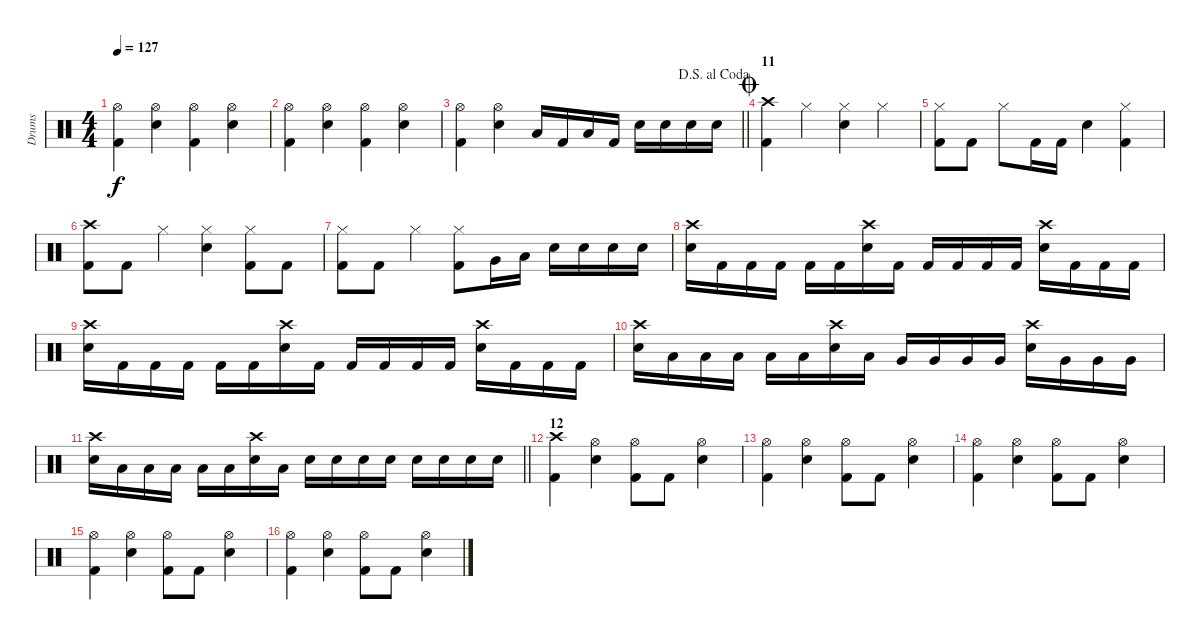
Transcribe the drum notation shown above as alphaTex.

\track ("Drums" "Drums") {instrument percussion}
\staff {score}
\articulation defaults
\ts (4 4)
\tempo 127
\clef neutral
\ks c
("Hi-Hat (open)" "Kick (hit) 2").4{dy f} ("Hi-Hat (open)" "Snare (hit) 2").4 ("Hi-Hat (open)" "Kick (hit) 2").4 ("Hi-Hat (open)" "Snare (hit) 2").4 |
("Hi-Hat (open)" "Kick (hit) 2").4 ("Hi-Hat (open)" "Snare (hit) 2").4 ("Hi-Hat (open)" "Kick (hit) 2").4 ("Hi-Hat (open)" "Snare (hit) 2").4 |
\jump dalsegnoalcoda
\barLineRight lightlight
("Hi-Hat (open)" "Kick (hit) 2").4 ("Hi-Hat (open)" "Snare (hit) 2").4 "Low Tom (hit)".16 "Kick (hit) 2".16 "Low Tom (hit)".16 "Kick (hit) 2".16 "Snare (hit) 2".16 "Snare (hit) 2".16 "Snare (hit) 2".16 "Snare (hit) 2".16 |
\section ("" "11")
\jump coda
("Crash high (hit)" "Kick (hit) 2").4 "Hi-Hat (closed)".4 ("Hi-Hat (closed)" "Snare (hit) 2").4 "Hi-Hat (closed)".4 |
("Hi-Hat (closed)" "Kick (hit) 2").8 "Kick (hit) 2".8 "Hi-Hat (closed)".8 "Kick (hit) 2".16 "Kick (hit) 2".16 "Snare (hit) 2".4 ("Hi-Hat (closed)" "Kick (hit) 2").4 |
("Crash high (hit)" "Kick (hit) 2").8 "Kick (hit) 2".8 "Hi-Hat (closed)".4 ("Hi-Hat (closed)" "Snare (hit) 2").4 ("Hi-Hat (closed)" "Kick (hit) 2").8 "Kick (hit) 2".8 |
("Hi-Hat (closed)" "Kick (hit) 2").8 "Kick (hit) 2".8 "Hi-Hat (closed)".4 ("Hi-Hat (closed)" "Kick (hit) 2").8 "Very Low Tom (hit)".16 "Low Floor Tom (hit)".16 "Snare (hit) 2".16 "Snare (hit) 2".16 "Snare (hit) 2".16 "Snare (hit) 2".16 |
("Crash high (hit)" "Snare (hit) 2").16 "Kick (hit) 2".16 "Kick (hit) 2".16 "Kick (hit) 2".16 "Kick (hit) 2".16 "Kick (hit) 2".16 ("Crash high (hit)" "Snare (hit) 2").16 "Kick (hit) 2".16 "Kick (hit) 2".16 "Kick (hit) 2".16 "Kick (hit) 2".16 "Kick (hit) 2".16 ("Crash high (hit)" "Snare (hit) 2").16 "Kick (hit) 2".16 "Kick (hit) 2".16 "Kick (hit) 2".16 |
("Crash high (hit)" "Snare (hit) 2").16 "Kick (hit) 2".16 "Kick (hit) 2".16 "Kick (hit) 2".16 "Kick (hit) 2".16 "Kick (hit) 2".16 ("Crash high (hit)" "Snare (hit) 2").16 "Kick (hit) 2".16 "Kick (hit) 2".16 "Kick (hit) 2".16 "Kick (hit) 2".16 "Kick (hit) 2".16 ("Crash high (hit)" "Snare (hit) 2").16 "Kick (hit) 2".16 "Kick (hit) 2".16 "Kick (hit) 2".16 |
("Crash high (hit)" "Snare (hit) 2").16 "Low Floor Tom (hit)".16 "Low Floor Tom (hit)".16 "Low Floor Tom (hit)".16 "Low Floor Tom (hit)".16 "Low Floor Tom (hit)".16 ("Crash high (hit)" "Snare (hit) 2").16 "Low Floor Tom (hit)".16 "Very Low Tom (hit)".16 "Very Low Tom (hit)".16 "Very Low Tom (hit)".16 "Very Low Tom (hit)".16 ("Crash high (hit)" "Snare (hit) 2").16 "Very Low Tom (hit)".16 "Very Low Tom (hit)".16 "Very Low Tom (hit)".16 |
\barLineRight lightlight
("Crash high (hit)" "Snare (hit) 2").16 "Low Tom (hit)".16 "Low Tom (hit)".16 "Low Tom (hit)".16 "Low Tom (hit)".16 "Low Tom (hit)".16 ("Crash high (hit)" "Snare (hit) 2").16 "Low Tom (hit)".16 "Snare (hit) 2".16 "Snare (hit) 2".16 "Snare (hit) 2".16 "Snare (hit) 2".16 "Snare (hit) 2".16 "Snare (hit) 2".16 "Snare (hit) 2".16 "Snare (hit) 2".16 |
\section ("" "12")
("Crash high (hit)" "Kick (hit) 2").4 ("Hi-Hat (open)" "Snare (hit) 2").4 ("Hi-Hat (open)" "Kick (hit) 2").8 "Kick (hit) 2".8 ("Hi-Hat (open)" "Snare (hit) 2").4 |
("Hi-Hat (open)" "Kick (hit) 2").4 ("Hi-Hat (open)" "Snare (hit) 2").4 ("Hi-Hat (open)" "Kick (hit) 2").8 "Kick (hit) 2".8 ("Hi-Hat (open)" "Snare (hit) 2").4 |
("Hi-Hat (open)" "Kick (hit) 2").4 ("Hi-Hat (open)" "Snare (hit) 2").4 ("Hi-Hat (open)" "Kick (hit) 2").8 "Kick (hit) 2".8 ("Hi-Hat (open)" "Snare (hit) 2").4 |
("Hi-Hat (open)" "Kick (hit) 2").4 ("Hi-Hat (open)" "Snare (hit) 2").4 ("Hi-Hat (open)" "Kick (hit) 2").8 "Kick (hit) 2".8 ("Hi-Hat (open)" "Snare (hit) 2").4 |
("Hi-Hat (open)" "Kick (hit) 2").4 ("Hi-Hat (open)" "Snare (hit) 2").4 ("Hi-Hat (open)" "Kick (hit) 2").8 "Kick (hit) 2".8 ("Hi-Hat (open)" "Snare (hit) 2").4
